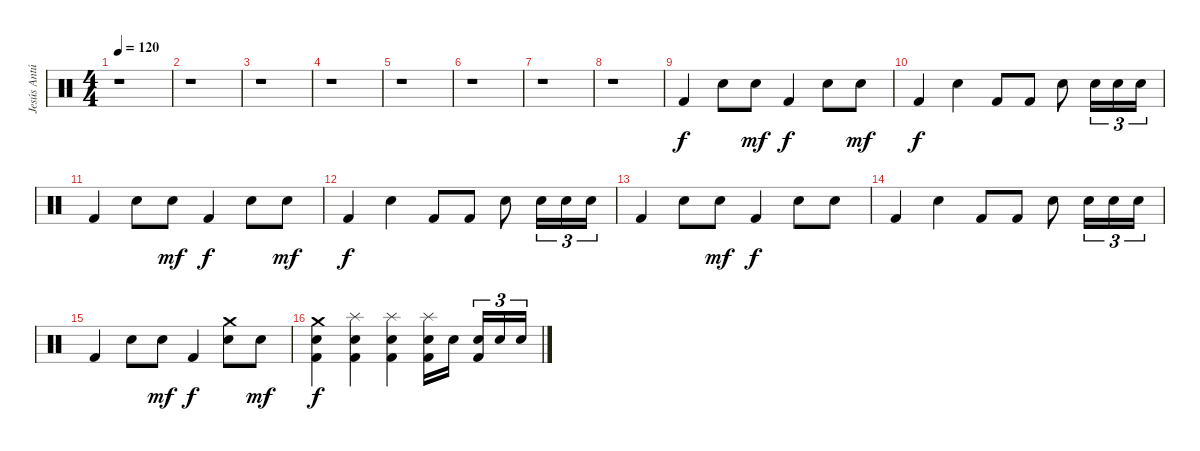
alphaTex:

\track ("Jesús Antúnez" "Jesús Antú") {instrument percussion}
\staff {score}
\articulation defaults
\ts (4 4)
\tempo 120
\clef neutral
\ks c
r.1{dy f} |
r.1 |
r.1 |
r.1 |
r.1 |
r.1 |
r.1 |
r.1 |
"Kick (hit) 2".4 "Electric Snare (hit)".8 "Electric Snare (hit)".8{dy mf} "Kick (hit) 2".4{dy f} "Electric Snare (hit)".8 "Electric Snare (hit)".8{dy mf} |
"Kick (hit) 2".4{dy f} "Electric Snare (hit)".4 "Kick (hit) 2".8 "Kick (hit) 2".8 "Electric Snare (hit)".8 "Electric Snare (hit)".16{tu (3 2)} "Electric Snare (hit)".16{tu (3 2)} "Electric Snare (hit)".16{tu (3 2)} |
"Kick (hit) 2".4 "Electric Snare (hit)".8 "Electric Snare (hit)".8{dy mf} "Kick (hit) 2".4{dy f} "Electric Snare (hit)".8 "Electric Snare (hit)".8{dy mf} |
"Kick (hit) 2".4{dy f} "Electric Snare (hit)".4 "Kick (hit) 2".8 "Kick (hit) 2".8 "Electric Snare (hit)".8 "Electric Snare (hit)".16{tu (3 2)} "Electric Snare (hit)".16{tu (3 2)} "Electric Snare (hit)".16{tu (3 2)} |
"Kick (hit) 2".4 "Electric Snare (hit)".8 "Electric Snare (hit)".8{dy mf} "Kick (hit) 2".4{dy f} "Electric Snare (hit)".8 "Electric Snare (hit)".8 |
"Kick (hit) 2".4 "Electric Snare (hit)".4 "Kick (hit) 2".8 "Kick (hit) 2".8 "Electric Snare (hit)".8 "Electric Snare (hit)".16{tu (3 2)} "Electric Snare (hit)".16{tu (3 2)} "Electric Snare (hit)".16{tu (3 2)} |
"Kick (hit) 2".4 "Electric Snare (hit)".8 "Electric Snare (hit)".8{dy mf} "Kick (hit) 2".4{dy f} ("Electric Snare (hit)" "Crash medium (hit)").8 "Electric Snare (hit)".8{dy mf} |
("Kick (hit) 2" "Electric Snare (hit)" "Crash medium (hit)").4{dy f} ("Kick (hit) 2" "Electric Snare (hit)" "Splash (hit)").4 ("Kick (hit) 2" "Electric Snare (hit)" "Splash (hit)").4 ("Kick (hit) 2" "Electric Snare (hit)" "Splash (hit)").16 "Electric Snare (hit)".16 ("Kick (hit) 2" "Electric Snare (hit)").16{tu (3 2)} "Electric Snare (hit)".16{tu (3 2)} "Electric Snare (hit)".16{tu (3 2)}
